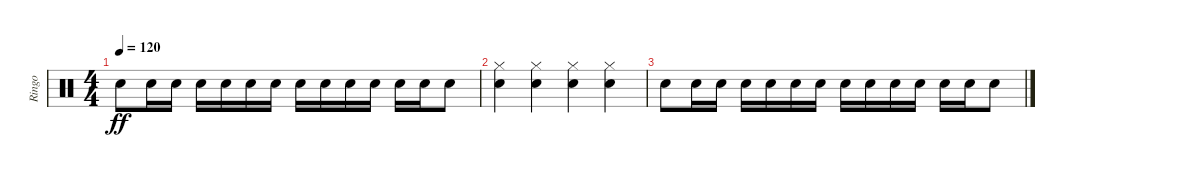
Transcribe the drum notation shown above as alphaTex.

\track ("Ringo" "Ringo") {instrument percussion}
\staff {score}
\articulation defaults
\ts (4 4)
\tempo 120
\clef neutral
\ks c "Snare (hit) 2".8{dy ff} "Snare (hit) 2".16 "Snare (hit) 2".16 "Snare (hit) 2".16 "Snare (hit) 2".16 "Snare (hit) 2".16 "Snare (hit) 2".16 "Snare (hit) 2".16 "Snare (hit) 2".16 "Snare (hit) 2".16 "Snare (hit) 2".16 "Snare (hit) 2".16 "Snare (hit) 2".16 "Snare (hit) 2".8
|
("Hi-Hat (closed)" "Snare (hit) 2").4 ("Hi-Hat (closed)" "Snare (hit) 2").4 ("Hi-Hat (closed)" "Snare (hit) 2").4 ("Hi-Hat (closed)" "Snare (hit) 2").4 |
"Snare (hit) 2".8 "Snare (hit) 2".16 "Snare (hit) 2".16 "Snare (hit) 2".16 "Snare (hit) 2".16 "Snare (hit) 2".16 "Snare (hit) 2".16 "Snare (hit) 2".16 "Snare (hit) 2".16 "Snare (hit) 2".16 "Snare (hit) 2".16 "Snare (hit) 2".16 "Snare (hit) 2".16 "Snare (hit) 2".8
